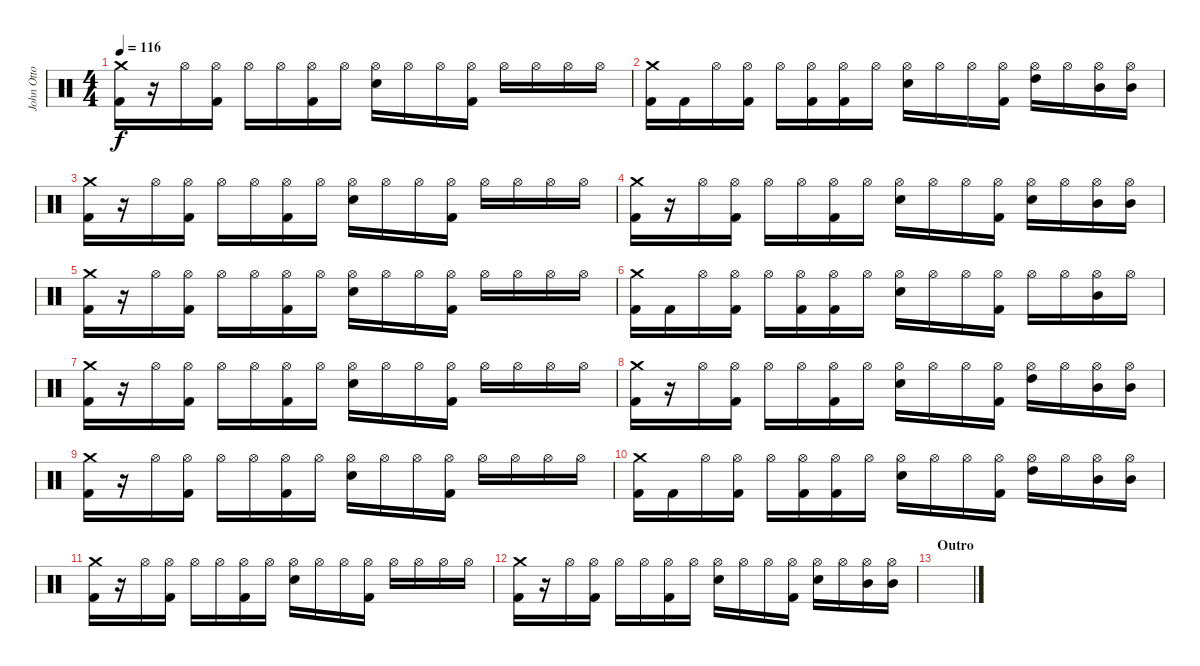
\track ("John Otto - Drums" "John Otto ") {instrument percussion}
\staff {score}
\articulation defaults
\ts (4 4)
\tempo 116
\clef neutral
\ks c
("Crash medium (hit)" "Kick (hit) 2").16{dy f} r.16 "Hi-Hat (open)".16 ("Hi-Hat (open)" "Kick (hit) 2").16 "Hi-Hat (open)".16 "Hi-Hat (open)".16 ("Hi-Hat (open)" "Kick (hit) 2").16 "Hi-Hat (open)".16 ("Hi-Hat (open)" "Electric Snare (hit)").16 "Hi-Hat (open)".16 "Hi-Hat (open)".16 ("Hi-Hat (open)" "Kick (hit) 2").16 "Hi-Hat (open)".16 "Hi-Hat (open)".16 "Hi-Hat (open)".16 "Hi-Hat (open)".16 |
("Crash medium (hit)" "Kick (hit) 2").16 "Kick (hit) 2".16 "Hi-Hat (open)".16 ("Hi-Hat (open)" "Kick (hit) 2").16 "Hi-Hat (open)".16 ("Hi-Hat (open)" "Kick (hit) 2").16 ("Hi-Hat (open)" "Kick (hit) 2").16 "Hi-Hat (open)".16 ("Hi-Hat (open)" "Electric Snare (hit)").16 "Hi-Hat (open)".16 "Hi-Hat (open)".16 ("Hi-Hat (open)" "Kick (hit) 2").16 ("Hi-Hat (open)" "High Tom (hit)").16 "Hi-Hat (open)".16 ("Hi-Hat (open)" "Mid Tom (hit)").16 ("Hi-Hat (open)" "Mid Tom (hit)").16 |
("Crash medium (hit)" "Kick (hit) 2").16 r.16 "Hi-Hat (open)".16 ("Hi-Hat (open)" "Kick (hit) 2").16 "Hi-Hat (open)".16 "Hi-Hat (open)".16 ("Hi-Hat (open)" "Kick (hit) 2").16 "Hi-Hat (open)".16 ("Hi-Hat (open)" "Electric Snare (hit)").16 "Hi-Hat (open)".16 "Hi-Hat (open)".16 ("Hi-Hat (open)" "Kick (hit) 2").16 "Hi-Hat (open)".16 "Hi-Hat (open)".16 "Hi-Hat (open)".16 "Hi-Hat (open)".16 |
("Crash medium (hit)" "Kick (hit) 2").16 r.16 "Hi-Hat (open)".16 ("Hi-Hat (open)" "Kick (hit) 2").16 "Hi-Hat (open)".16 "Hi-Hat (open)".16 ("Hi-Hat (open)" "Kick (hit) 2").16 "Hi-Hat (open)".16 ("Hi-Hat (open)" "Electric Snare (hit)").16 "Hi-Hat (open)".16 "Hi-Hat (open)".16 ("Hi-Hat (open)" "Kick (hit) 2").16 ("Hi-Hat (open)" "Electric Snare (hit)").16 "Hi-Hat (open)".16 ("Hi-Hat (open)" "Mid Tom (hit)").16 ("Hi-Hat (open)" "Mid Tom (hit)").16 |
("Crash medium (hit)" "Kick (hit) 2").16 r.16 "Hi-Hat (open)".16 ("Hi-Hat (open)" "Kick (hit) 2").16 "Hi-Hat (open)".16 "Hi-Hat (open)".16 ("Hi-Hat (open)" "Kick (hit) 2").16 "Hi-Hat (open)".16 ("Hi-Hat (open)" "Electric Snare (hit)").16 "Hi-Hat (open)".16 "Hi-Hat (open)".16 ("Hi-Hat (open)" "Kick (hit) 2").16 "Hi-Hat (open)".16 "Hi-Hat (open)".16 "Hi-Hat (open)".16 "Hi-Hat (open)".16 |
("Crash medium (hit)" "Kick (hit) 2").16 "Kick (hit) 2".16 "Hi-Hat (open)".16 ("Hi-Hat (open)" "Kick (hit) 2").16 "Hi-Hat (open)".16 ("Hi-Hat (open)" "Kick (hit) 2").16 ("Hi-Hat (open)" "Kick (hit) 2").16 "Hi-Hat (open)".16 ("Hi-Hat (open)" "Electric Snare (hit)").16 "Hi-Hat (open)".16 "Hi-Hat (open)".16 ("Hi-Hat (open)" "Kick (hit) 2").16 "Hi-Hat (open)".16 "Hi-Hat (open)".16 ("Hi-Hat (open)" "Mid Tom (hit)").16 "Hi-Hat (open)".16 |
("Crash medium (hit)" "Kick (hit) 2").16 r.16 "Hi-Hat (open)".16 ("Hi-Hat (open)" "Kick (hit) 2").16 "Hi-Hat (open)".16 "Hi-Hat (open)".16 ("Hi-Hat (open)" "Kick (hit) 2").16 "Hi-Hat (open)".16 ("Hi-Hat (open)" "Electric Snare (hit)").16 "Hi-Hat (open)".16 "Hi-Hat (open)".16 ("Hi-Hat (open)" "Kick (hit) 2").16 "Hi-Hat (open)".16 "Hi-Hat (open)".16 "Hi-Hat (open)".16 "Hi-Hat (open)".16 |
("Crash medium (hit)" "Kick (hit) 2").16 r.16 "Hi-Hat (open)".16 ("Hi-Hat (open)" "Kick (hit) 2").16 "Hi-Hat (open)".16 "Hi-Hat (open)".16 ("Hi-Hat (open)" "Kick (hit) 2").16 "Hi-Hat (open)".16 ("Hi-Hat (open)" "Electric Snare (hit)").16 "Hi-Hat (open)".16 "Hi-Hat (open)".16 ("Hi-Hat (open)" "Kick (hit) 2").16 ("Hi-Hat (open)" "High Tom (hit)").16 "Hi-Hat (open)".16 ("Hi-Hat (open)" "Mid Tom (hit)").16 ("Hi-Hat (open)" "Mid Tom (hit)").16 |
("Crash medium (hit)" "Kick (hit) 2").16 r.16 "Hi-Hat (open)".16 ("Hi-Hat (open)" "Kick (hit) 2").16 "Hi-Hat (open)".16 "Hi-Hat (open)".16 ("Hi-Hat (open)" "Kick (hit) 2").16 "Hi-Hat (open)".16 ("Hi-Hat (open)" "Electric Snare (hit)").16 "Hi-Hat (open)".16 "Hi-Hat (open)".16 ("Hi-Hat (open)" "Kick (hit) 2").16 "Hi-Hat (open)".16 "Hi-Hat (open)".16 "Hi-Hat (open)".16 "Hi-Hat (open)".16 |
("Crash medium (hit)" "Kick (hit) 2").16 "Kick (hit) 2".16 "Hi-Hat (open)".16 ("Hi-Hat (open)" "Kick (hit) 2").16 "Hi-Hat (open)".16 ("Hi-Hat (open)" "Kick (hit) 2").16 ("Hi-Hat (open)" "Kick (hit) 2").16 "Hi-Hat (open)".16 ("Hi-Hat (open)" "Electric Snare (hit)").16 "Hi-Hat (open)".16 "Hi-Hat (open)".16 ("Hi-Hat (open)" "Kick (hit) 2").16 ("Hi-Hat (open)" "High Tom (hit)").16 "Hi-Hat (open)".16 ("Hi-Hat (open)" "Mid Tom (hit)").16 ("Hi-Hat (open)" "Mid Tom (hit)").16 |
("Crash medium (hit)" "Kick (hit) 2").16 r.16 "Hi-Hat (open)".16 ("Hi-Hat (open)" "Kick (hit) 2").16 "Hi-Hat (open)".16 "Hi-Hat (open)".16 ("Hi-Hat (open)" "Kick (hit) 2").16 "Hi-Hat (open)".16 ("Hi-Hat (open)" "Electric Snare (hit)").16 "Hi-Hat (open)".16 "Hi-Hat (open)".16 ("Hi-Hat (open)" "Kick (hit) 2").16 "Hi-Hat (open)".16 "Hi-Hat (open)".16 "Hi-Hat (open)".16 "Hi-Hat (open)".16 |
("Crash medium (hit)" "Kick (hit) 2").16 r.16 "Hi-Hat (open)".16 ("Hi-Hat (open)" "Kick (hit) 2").16 "Hi-Hat (open)".16 "Hi-Hat (open)".16 ("Hi-Hat (open)" "Kick (hit) 2").16 "Hi-Hat (open)".16 ("Hi-Hat (open)" "Electric Snare (hit)").16 "Hi-Hat (open)".16 "Hi-Hat (open)".16 ("Hi-Hat (open)" "Kick (hit) 2").16 ("Hi-Hat (open)" "Electric Snare (hit)").16 "Hi-Hat (open)".16 ("Hi-Hat (open)" "Mid Tom (hit)").16 ("Hi-Hat (open)" "Mid Tom (hit)").16 |
\section ("" "Outro")
